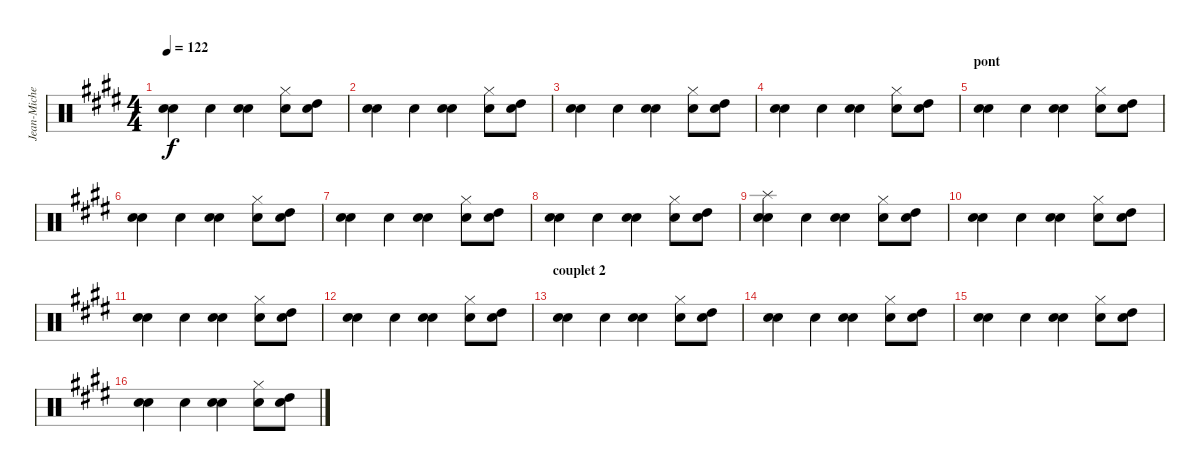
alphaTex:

\track ("Jean-Michel Truong (Batterie)" "Jean-Miche") {instrument percussion}
\staff {score}
\articulation defaults
\ts (4 4)
\tempo 122
\clef neutral
\ks e
("Snare (hit) 2" "Electric Snare (hit)").4{dy f} "Electric Snare (hit)".4 ("Snare (hit) 2" "Electric Snare (hit)").4 ("Electric Snare (hit)" "Hi-Hat (closed)").8 ("Electric Snare (hit)" "High Tom (hit)").8 |
("Snare (hit) 2" "Electric Snare (hit)").4 "Electric Snare (hit)".4 ("Snare (hit) 2" "Electric Snare (hit)").4 ("Electric Snare (hit)" "Hi-Hat (closed)").8 ("Electric Snare (hit)" "High Tom (hit)").8 |
("Snare (hit) 2" "Electric Snare (hit)").4 "Electric Snare (hit)".4 ("Snare (hit) 2" "Electric Snare (hit)").4 ("Electric Snare (hit)" "Hi-Hat (closed)").8 ("Electric Snare (hit)" "High Tom (hit)").8 |
("Snare (hit) 2" "Electric Snare (hit)").4 "Electric Snare (hit)".4 ("Snare (hit) 2" "Electric Snare (hit)").4 ("Electric Snare (hit)" "Hi-Hat (closed)").8 ("Electric Snare (hit)" "High Tom (hit)").8 |
\section ("" "pont")
("Snare (hit) 2" "Electric Snare (hit)").4 "Electric Snare (hit)".4 ("Snare (hit) 2" "Electric Snare (hit)").4 ("Electric Snare (hit)" "Hi-Hat (closed)").8 ("Electric Snare (hit)" "High Tom (hit)").8 |
("Snare (hit) 2" "Electric Snare (hit)").4 "Electric Snare (hit)".4 ("Snare (hit) 2" "Electric Snare (hit)").4 ("Electric Snare (hit)" "Hi-Hat (closed)").8 ("Electric Snare (hit)" "High Tom (hit)").8 |
("Snare (hit) 2" "Electric Snare (hit)").4 "Electric Snare (hit)".4 ("Snare (hit) 2" "Electric Snare (hit)").4 ("Electric Snare (hit)" "Hi-Hat (closed)").8 ("Electric Snare (hit)" "High Tom (hit)").8 |
("Snare (hit) 2" "Electric Snare (hit)").4 "Electric Snare (hit)".4 ("Snare (hit) 2" "Electric Snare (hit)").4 ("Electric Snare (hit)" "Hi-Hat (closed)").8 ("Electric Snare (hit)" "High Tom (hit)").8 |
("Snare (hit) 2" "Electric Snare (hit)" "Splash (hit)").4 "Electric Snare (hit)".4 ("Snare (hit) 2" "Electric Snare (hit)").4 ("Electric Snare (hit)" "Hi-Hat (closed)").8 ("Electric Snare (hit)" "High Tom (hit)").8 |
("Snare (hit) 2" "Electric Snare (hit)").4 "Electric Snare (hit)".4 ("Snare (hit) 2" "Electric Snare (hit)").4 ("Electric Snare (hit)" "Hi-Hat (closed)").8 ("Electric Snare (hit)" "High Tom (hit)").8 |
("Snare (hit) 2" "Electric Snare (hit)").4 "Electric Snare (hit)".4 ("Snare (hit) 2" "Electric Snare (hit)").4 ("Electric Snare (hit)" "Hi-Hat (closed)").8 ("Electric Snare (hit)" "High Tom (hit)").8 |
("Snare (hit) 2" "Electric Snare (hit)").4 "Electric Snare (hit)".4 ("Snare (hit) 2" "Electric Snare (hit)").4 ("Electric Snare (hit)" "Hi-Hat (closed)").8 ("Electric Snare (hit)" "High Tom (hit)").8 |
\section ("" "couplet 2")
("Snare (hit) 2" "Electric Snare (hit)").4 "Electric Snare (hit)".4 ("Snare (hit) 2" "Electric Snare (hit)").4 ("Electric Snare (hit)" "Hi-Hat (closed)").8 ("Electric Snare (hit)" "High Tom (hit)").8 |
("Snare (hit) 2" "Electric Snare (hit)").4 "Electric Snare (hit)".4 ("Snare (hit) 2" "Electric Snare (hit)").4 ("Electric Snare (hit)" "Hi-Hat (closed)").8 ("Electric Snare (hit)" "High Tom (hit)").8 |
("Snare (hit) 2" "Electric Snare (hit)").4 "Electric Snare (hit)".4 ("Snare (hit) 2" "Electric Snare (hit)").4 ("Electric Snare (hit)" "Hi-Hat (closed)").8 ("Electric Snare (hit)" "High Tom (hit)").8 |
("Snare (hit) 2" "Electric Snare (hit)").4 "Electric Snare (hit)".4 ("Snare (hit) 2" "Electric Snare (hit)").4 ("Electric Snare (hit)" "Hi-Hat (closed)").8 ("Electric Snare (hit)" "High Tom (hit)").8
